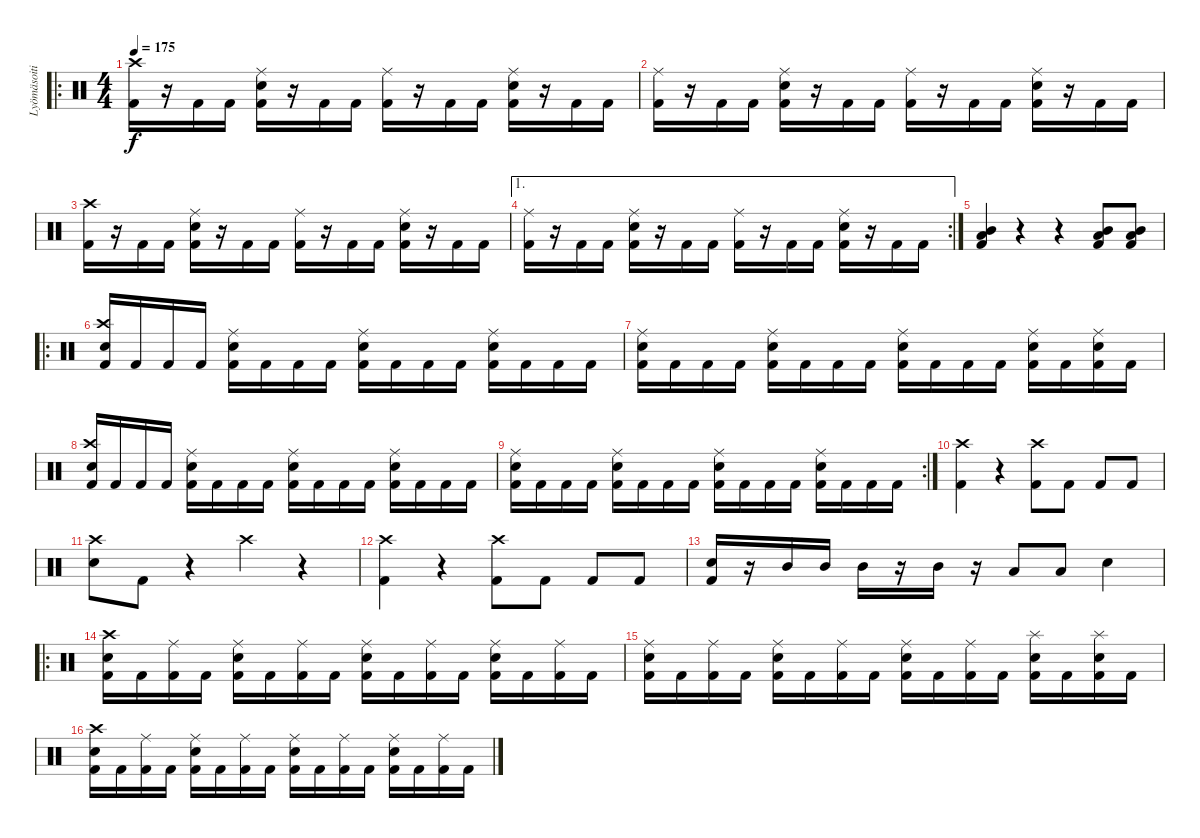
\track ("Lyömäsoitin" "Lyömäsoiti") {instrument percussion}
\staff {score}
\articulation defaults
\ro
\ts (4 4)
\tempo 175
\clef neutral
\ks c
("Kick (hit) 2" "Crash high (hit)").16{dy f} r.16 "Kick (hit) 2".16 "Kick (hit) 2".16 ("Kick (hit) 2" "Electric Snare (hit)" "Ride (middle)").16 r.16 "Kick (hit) 2".16 "Kick (hit) 2".16 ("Kick (hit) 2" "Ride (middle)").16 r.16 "Kick (hit) 2".16 "Kick (hit) 2".16 ("Kick (hit) 2" "Electric Snare (hit)" "Ride (middle)").16 r.16 "Kick (hit) 2".16 "Kick (hit) 2".16 |
("Kick (hit) 2" "Ride (middle)").16 r.16 "Kick (hit) 2".16 "Kick (hit) 2".16 ("Kick (hit) 2" "Electric Snare (hit)" "Ride (middle)").16 r.16 "Kick (hit) 2".16 "Kick (hit) 2".16 ("Kick (hit) 2" "Ride (middle)").16 r.16 "Kick (hit) 2".16 "Kick (hit) 2".16 ("Kick (hit) 2" "Electric Snare (hit)" "Ride (middle)").16 r.16 "Kick (hit) 2".16 "Kick (hit) 2".16 |
("Kick (hit) 2" "Crash high (hit)").16 r.16 "Kick (hit) 2".16 "Kick (hit) 2".16 ("Kick (hit) 2" "Electric Snare (hit)" "Ride (middle)").16 r.16 "Kick (hit) 2".16 "Kick (hit) 2".16 ("Kick (hit) 2" "Ride (middle)").16 r.16 "Kick (hit) 2".16 "Kick (hit) 2".16 ("Kick (hit) 2" "Electric Snare (hit)" "Ride (middle)").16 r.16 "Kick (hit) 2".16 "Kick (hit) 2".16 |
\ae 1
\rc 2
("Kick (hit) 2" "Ride (middle)").16 r.16 "Kick (hit) 2".16 "Kick (hit) 2".16 ("Kick (hit) 2" "Electric Snare (hit)" "Ride (middle)").16 r.16 "Kick (hit) 2".16 "Kick (hit) 2".16 ("Kick (hit) 2" "Ride (middle)").16 r.16 "Kick (hit) 2".16 "Kick (hit) 2".16 ("Kick (hit) 2" "Electric Snare (hit)" "Ride (middle)").16 r.16 "Kick (hit) 2".16 "Kick (hit) 2".16 |
("Kick (hit) 2" "Mid Tom (hit)" "Low Tom (hit)").4 r.4 r.4 ("Kick (hit) 2" "Mid Tom (hit)" "Low Tom (hit)").8 ("Kick (hit) 2" "Mid Tom (hit)" "Low Tom (hit)").8 |
\ro
("Kick (hit) 2" "Electric Snare (hit)" "Crash high (hit)").16 "Kick (hit) 2".16 "Kick (hit) 2".16 "Kick (hit) 2".16 ("Kick (hit) 2" "Electric Snare (hit)" "Ride (middle)").16 "Kick (hit) 2".16 "Kick (hit) 2".16 "Kick (hit) 2".16 ("Kick (hit) 2" "Electric Snare (hit)" "Ride (middle)").16 "Kick (hit) 2".16 "Kick (hit) 2".16 "Kick (hit) 2".16 ("Kick (hit) 2" "Electric Snare (hit)" "Ride (middle)").16 "Kick (hit) 2".16 "Kick (hit) 2".16 "Kick (hit) 2".16 |
("Kick (hit) 2" "Electric Snare (hit)" "Ride (middle)").16 "Kick (hit) 2".16 "Kick (hit) 2".16 "Kick (hit) 2".16 ("Kick (hit) 2" "Electric Snare (hit)" "Ride (middle)").16 "Kick (hit) 2".16 "Kick (hit) 2".16 "Kick (hit) 2".16 ("Kick (hit) 2" "Electric Snare (hit)" "Ride (middle)").16 "Kick (hit) 2".16 "Kick (hit) 2".16 "Kick (hit) 2".16 ("Kick (hit) 2" "Electric Snare (hit)" "Ride (middle)").16 "Kick (hit) 2".16 ("Kick (hit) 2" "Electric Snare (hit)" "Ride (middle)").16 "Kick (hit) 2".16 |
("Kick (hit) 2" "Electric Snare (hit)" "Crash high (hit)").16 "Kick (hit) 2".16 "Kick (hit) 2".16 "Kick (hit) 2".16 ("Kick (hit) 2" "Electric Snare (hit)" "Ride (middle)").16 "Kick (hit) 2".16 "Kick (hit) 2".16 "Kick (hit) 2".16 ("Kick (hit) 2" "Electric Snare (hit)" "Ride (middle)").16 "Kick (hit) 2".16 "Kick (hit) 2".16 "Kick (hit) 2".16 ("Kick (hit) 2" "Electric Snare (hit)" "Ride (middle)").16 "Kick (hit) 2".16 "Kick (hit) 2".16 "Kick (hit) 2".16 |
\rc 2
("Kick (hit) 2" "Electric Snare (hit)" "Ride (middle)").16 "Kick (hit) 2".16 "Kick (hit) 2".16 "Kick (hit) 2".16 ("Kick (hit) 2" "Electric Snare (hit)" "Ride (middle)").16 "Kick (hit) 2".16 "Kick (hit) 2".16 "Kick (hit) 2".16 ("Kick (hit) 2" "Electric Snare (hit)" "Ride (middle)").16 "Kick (hit) 2".16 "Kick (hit) 2".16 "Kick (hit) 2".16 ("Kick (hit) 2" "Electric Snare (hit)" "Ride (middle)").16 "Kick (hit) 2".16 "Kick (hit) 2".16 "Kick (hit) 2".16 |
("Kick (hit) 2" "Crash high (hit)").4 r.4 ("Kick (hit) 2" "Crash high (hit)").8 "Kick (hit) 2".8 "Kick (hit) 2".8 "Kick (hit) 2".8 |
("Electric Snare (hit)" "Crash high (hit)").8 "Kick (hit) 2".8 r.4 "Crash high (hit)".4 r.4 |
("Kick (hit) 2" "Crash high (hit)").4 r.4 ("Kick (hit) 2" "Crash high (hit)").8 "Kick (hit) 2".8 "Kick (hit) 2".8 "Kick (hit) 2".8 |
("Kick (hit) 2" "Electric Snare (hit)").16 r.16 "Mid Tom (hit)".16 "Mid Tom (hit)".16 "Mid Tom (hit)".16 r.16 "Mid Tom (hit)".16 r.16 "Low Tom (hit)".8 "Low Tom (hit)".8 "Electric Snare (hit)".4 |
\ro
("Kick (hit) 2" "Electric Snare (hit)" "Crash high (hit)").16 "Kick (hit) 2".16 ("Kick (hit) 2" "Ride (middle)").16 "Kick (hit) 2".16 ("Kick (hit) 2" "Electric Snare (hit)" "Ride (middle)").16 "Kick (hit) 2".16 ("Kick (hit) 2" "Ride (middle)").16 "Kick (hit) 2".16 ("Kick (hit) 2" "Electric Snare (hit)" "Ride (middle)").16 "Kick (hit) 2".16 ("Kick (hit) 2" "Ride (middle)").16 "Kick (hit) 2".16 ("Kick (hit) 2" "Electric Snare (hit)" "Ride (middle)").16 "Kick (hit) 2".16 ("Kick (hit) 2" "Ride (middle)").16 "Kick (hit) 2".16 |
("Kick (hit) 2" "Electric Snare (hit)" "Ride (middle)").16 "Kick (hit) 2".16 ("Kick (hit) 2" "Ride (middle)").16 "Kick (hit) 2".16 ("Kick (hit) 2" "Electric Snare (hit)" "Ride (middle)").16 "Kick (hit) 2".16 ("Kick (hit) 2" "Ride (middle)").16 "Kick (hit) 2".16 ("Kick (hit) 2" "Electric Snare (hit)" "Ride (middle)").16 "Kick (hit) 2".16 ("Kick (hit) 2" "Ride (middle)").16 "Kick (hit) 2".16 ("Kick (hit) 2" "Electric Snare (hit)" "Splash (hit)").16 "Kick (hit) 2".16 ("Kick (hit) 2" "Electric Snare (hit)" "Splash (hit)").16 "Kick (hit) 2".16 |
("Kick (hit) 2" "Electric Snare (hit)" "Crash high (hit)").16 "Kick (hit) 2".16 ("Kick (hit) 2" "Ride (middle)").16 "Kick (hit) 2".16 ("Kick (hit) 2" "Electric Snare (hit)" "Ride (middle)").16 "Kick (hit) 2".16 ("Kick (hit) 2" "Ride (middle)").16 "Kick (hit) 2".16 ("Kick (hit) 2" "Electric Snare (hit)" "Ride (middle)").16 "Kick (hit) 2".16 ("Kick (hit) 2" "Ride (middle)").16 "Kick (hit) 2".16 ("Kick (hit) 2" "Electric Snare (hit)" "Ride (middle)").16 "Kick (hit) 2".16 ("Kick (hit) 2" "Ride (middle)").16 "Kick (hit) 2".16
